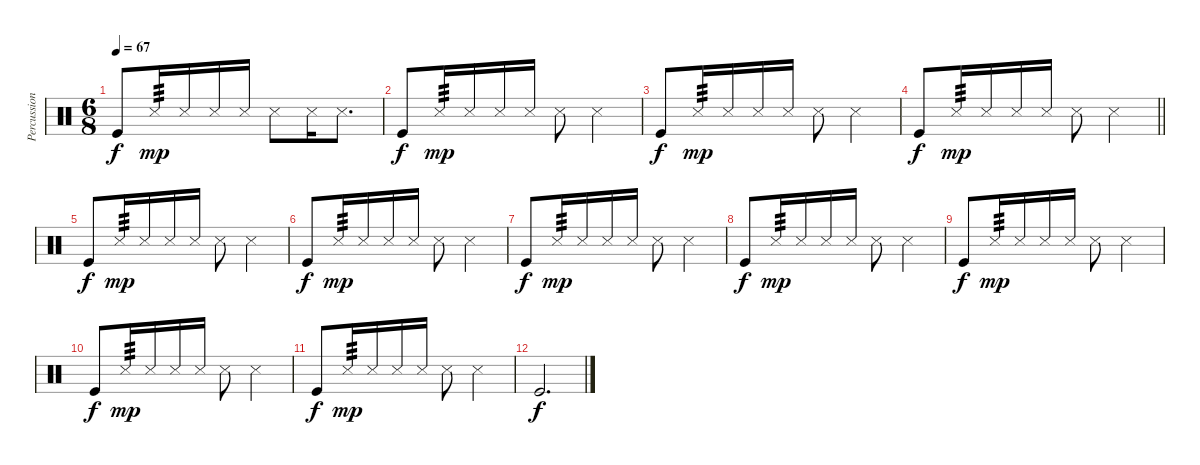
\track ("Percussions" "Percussion") {instrument percussion}
\staff {score}
\articulation defaults
\ts (6 8)
\tempo 67
\clef neutral
\ks c "Kick (hit)".8{dy f} "Snare (side stick) 3".16{tp 3 dy mp} "Snare (side stick) 3".16 "Snare (side stick) 3".16 "Snare (side stick) 3".16 "Snare (side stick) 3".8 "Snare (side stick) 3".16 "Snare (side stick) 3".8{d}
|
"Kick (hit)".8{dy f} "Snare (side stick) 3".16{tp 3 dy mp} "Snare (side stick) 3".16 "Snare (side stick) 3".16 "Snare (side stick) 3".16 "Snare (side stick) 3".8 "Snare (side stick) 3".4 |
"Kick (hit)".8{dy f} "Snare (side stick) 3".16{tp 3 dy mp} "Snare (side stick) 3".16 "Snare (side stick) 3".16 "Snare (side stick) 3".16 "Snare (side stick) 3".8 "Snare (side stick) 3".4 |
\barLineRight lightlight "Kick (hit)".8{dy f} "Snare (side stick) 3".16{tp 3 dy mp} "Snare (side stick) 3".16 "Snare (side stick) 3".16 "Snare (side stick) 3".16 "Snare (side stick) 3".8 "Snare (side stick) 3".4
|
"Kick (hit)".8{dy f} "Snare (side stick) 3".16{tp 3 dy mp} "Snare (side stick) 3".16 "Snare (side stick) 3".16 "Snare (side stick) 3".16 "Snare (side stick) 3".8 "Snare (side stick) 3".4 |
"Kick (hit)".8{dy f} "Snare (side stick) 3".16{tp 3 dy mp} "Snare (side stick) 3".16 "Snare (side stick) 3".16 "Snare (side stick) 3".16 "Snare (side stick) 3".8 "Snare (side stick) 3".4 |
"Kick (hit)".8{dy f} "Snare (side stick) 3".16{tp 3 dy mp} "Snare (side stick) 3".16 "Snare (side stick) 3".16 "Snare (side stick) 3".16 "Snare (side stick) 3".8 "Snare (side stick) 3".4 |
"Kick (hit)".8{dy f} "Snare (side stick) 3".16{tp 3 dy mp} "Snare (side stick) 3".16 "Snare (side stick) 3".16 "Snare (side stick) 3".16 "Snare (side stick) 3".8 "Snare (side stick) 3".4 |
"Kick (hit)".8{dy f} "Snare (side stick) 3".16{tp 3 dy mp} "Snare (side stick) 3".16 "Snare (side stick) 3".16 "Snare (side stick) 3".16 "Snare (side stick) 3".8 "Snare (side stick) 3".4 |
"Kick (hit)".8{dy f} "Snare (side stick) 3".16{tp 3 dy mp} "Snare (side stick) 3".16 "Snare (side stick) 3".16 "Snare (side stick) 3".16 "Snare (side stick) 3".8 "Snare (side stick) 3".4 |
"Kick (hit)".8{dy f} "Snare (side stick) 3".16{tp 3 dy mp} "Snare (side stick) 3".16 "Snare (side stick) 3".16 "Snare (side stick) 3".16 "Snare (side stick) 3".8 "Snare (side stick) 3".4 |
"Kick (hit)".2{d dy f}
